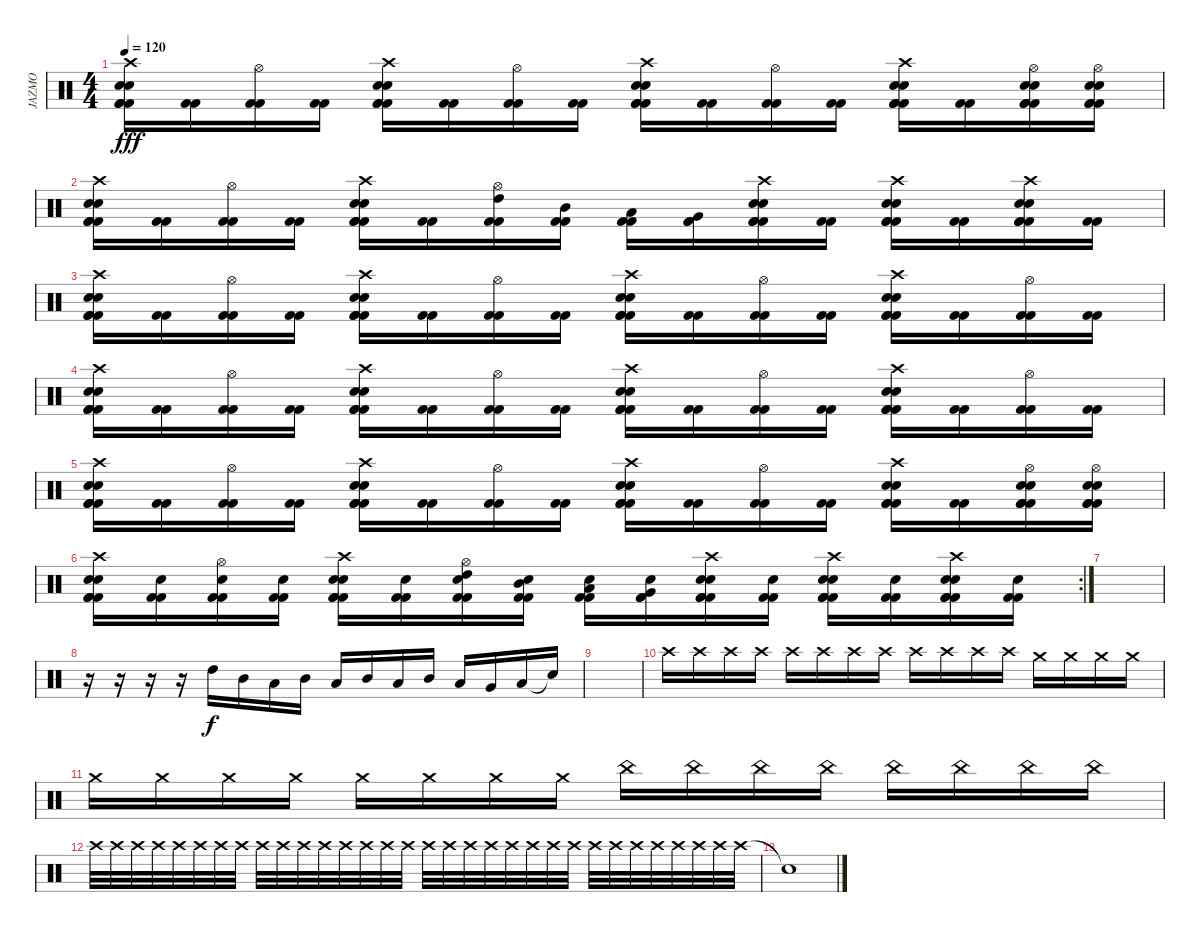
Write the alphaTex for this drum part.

\track ("JAZMO" "JAZMO") {instrument percussion}
\staff {score}
\articulation defaults
\ts (4 4)
\tempo 120
\clef neutral
\ks c
("Electric Snare (hit)" "Kick (hit) 2" "Crash high (hit)" "Electric Snare (hit)" "Kick (hit) 2" "Kick (hit) 2").16{dy fff} ("Kick (hit) 2" "Kick (hit) 2").16 ("Hi-Hat (open)" "Kick (hit) 2" "Kick (hit) 2").16 ("Kick (hit) 2" "Kick (hit) 2").16 ("Electric Snare (hit)" "Kick (hit) 2" "Crash high (hit)" "Electric Snare (hit)" "Kick (hit) 2" "Kick (hit) 2").16 ("Kick (hit) 2" "Kick (hit) 2").16 ("Hi-Hat (open)" "Kick (hit) 2" "Kick (hit) 2").16 ("Kick (hit) 2" "Kick (hit) 2").16 ("Electric Snare (hit)" "Kick (hit) 2" "Crash high (hit)" "Electric Snare (hit)" "Kick (hit) 2" "Kick (hit) 2").16 ("Kick (hit) 2" "Kick (hit) 2").16 ("Hi-Hat (open)" "Kick (hit) 2" "Kick (hit) 2").16 ("Kick (hit) 2" "Kick (hit) 2").16 ("Electric Snare (hit)" "Kick (hit) 2" "Crash high (hit)" "Electric Snare (hit)" "Kick (hit) 2" "Kick (hit) 2").16 ("Kick (hit) 2" "Kick (hit) 2").16 ("Electric Snare (hit)" "Kick (hit) 2" "Hi-Hat (open)" "Electric Snare (hit)" "Kick (hit) 2" "Kick (hit) 2").16 ("Electric Snare (hit)" "Kick (hit) 2" "Hi-Hat (open)" "Electric Snare (hit)" "Kick (hit) 2" "Kick (hit) 2").16 |
("Electric Snare (hit)" "Kick (hit) 2" "Crash high (hit)" "Electric Snare (hit)" "Kick (hit) 2" "Kick (hit) 2").16 ("Kick (hit) 2" "Kick (hit) 2").16 ("Hi-Hat (open)" "Kick (hit) 2" "Kick (hit) 2").16 ("Kick (hit) 2" "Kick (hit) 2").16 ("Electric Snare (hit)" "Kick (hit) 2" "Crash high (hit)" "Electric Snare (hit)" "Kick (hit) 2" "Kick (hit) 2").16 ("Kick (hit) 2" "Kick (hit) 2").16 ("High Tom (hit)" "Hi-Hat (open)" "Kick (hit) 2" "Kick (hit) 2").16 ("Mid Tom (hit)" "Kick (hit) 2" "Kick (hit) 2").16 ("Low Tom (hit)" "Kick (hit) 2" "Kick (hit) 2").16 ("Very Low Tom (hit)" "Kick (hit) 2" "Kick (hit) 2").16 ("Electric Snare (hit)" "Kick (hit) 2" "Crash high (hit)" "Electric Snare (hit)" "Kick (hit) 2" "Kick (hit) 2").16 ("Kick (hit) 2" "Kick (hit) 2").16 ("Electric Snare (hit)" "Kick (hit) 2" "Crash high (hit)" "Electric Snare (hit)" "Kick (hit) 2" "Kick (hit) 2").16 ("Kick (hit) 2" "Kick (hit) 2").16 ("Electric Snare (hit)" "Kick (hit) 2" "Crash high (hit)" "Electric Snare (hit)" "Kick (hit) 2" "Kick (hit) 2").16 ("Kick (hit) 2" "Kick (hit) 2").16 |
("Electric Snare (hit)" "Kick (hit) 2" "Crash high (hit)" "Electric Snare (hit)" "Kick (hit) 2" "Kick (hit) 2").16 ("Kick (hit) 2" "Kick (hit) 2").16 ("Hi-Hat (open)" "Kick (hit) 2" "Kick (hit) 2").16 ("Kick (hit) 2" "Kick (hit) 2").16 ("Electric Snare (hit)" "Kick (hit) 2" "Crash high (hit)" "Electric Snare (hit)" "Kick (hit) 2" "Kick (hit) 2").16 ("Kick (hit) 2" "Kick (hit) 2").16 ("Hi-Hat (open)" "Kick (hit) 2" "Kick (hit) 2").16 ("Kick (hit) 2" "Kick (hit) 2").16 ("Electric Snare (hit)" "Kick (hit) 2" "Crash high (hit)" "Electric Snare (hit)" "Kick (hit) 2" "Kick (hit) 2").16 ("Kick (hit) 2" "Kick (hit) 2").16 ("Hi-Hat (open)" "Kick (hit) 2" "Kick (hit) 2").16 ("Kick (hit) 2" "Kick (hit) 2").16 ("Electric Snare (hit)" "Kick (hit) 2" "Crash high (hit)" "Electric Snare (hit)" "Kick (hit) 2" "Kick (hit) 2").16 ("Kick (hit) 2" "Kick (hit) 2").16 ("Hi-Hat (open)" "Kick (hit) 2" "Kick (hit) 2").16 ("Kick (hit) 2" "Kick (hit) 2").16 |
("Electric Snare (hit)" "Kick (hit) 2" "Crash high (hit)" "Electric Snare (hit)" "Kick (hit) 2" "Kick (hit) 2").16 ("Kick (hit) 2" "Kick (hit) 2").16 ("Hi-Hat (open)" "Kick (hit) 2" "Kick (hit) 2").16 ("Kick (hit) 2" "Kick (hit) 2").16 ("Electric Snare (hit)" "Kick (hit) 2" "Crash high (hit)" "Electric Snare (hit)" "Kick (hit) 2" "Kick (hit) 2").16 ("Kick (hit) 2" "Kick (hit) 2").16 ("Hi-Hat (open)" "Kick (hit) 2" "Kick (hit) 2").16 ("Kick (hit) 2" "Kick (hit) 2").16 ("Electric Snare (hit)" "Kick (hit) 2" "Crash high (hit)" "Electric Snare (hit)" "Kick (hit) 2" "Kick (hit) 2").16 ("Kick (hit) 2" "Kick (hit) 2").16 ("Hi-Hat (open)" "Kick (hit) 2" "Kick (hit) 2").16 ("Kick (hit) 2" "Kick (hit) 2").16 ("Electric Snare (hit)" "Kick (hit) 2" "Crash high (hit)" "Electric Snare (hit)" "Kick (hit) 2" "Kick (hit) 2").16 ("Kick (hit) 2" "Kick (hit) 2").16 ("Hi-Hat (open)" "Kick (hit) 2" "Kick (hit) 2").16 ("Kick (hit) 2" "Kick (hit) 2").16 |
("Electric Snare (hit)" "Kick (hit) 2" "Crash high (hit)" "Electric Snare (hit)" "Kick (hit) 2" "Kick (hit) 2").16 ("Kick (hit) 2" "Kick (hit) 2").16 ("Hi-Hat (open)" "Kick (hit) 2" "Kick (hit) 2").16 ("Kick (hit) 2" "Kick (hit) 2").16 ("Electric Snare (hit)" "Kick (hit) 2" "Crash high (hit)" "Electric Snare (hit)" "Kick (hit) 2" "Kick (hit) 2").16 ("Kick (hit) 2" "Kick (hit) 2").16 ("Hi-Hat (open)" "Kick (hit) 2" "Kick (hit) 2").16 ("Kick (hit) 2" "Kick (hit) 2").16 ("Electric Snare (hit)" "Kick (hit) 2" "Crash high (hit)" "Electric Snare (hit)" "Kick (hit) 2" "Kick (hit) 2").16 ("Kick (hit) 2" "Kick (hit) 2").16 ("Hi-Hat (open)" "Kick (hit) 2" "Kick (hit) 2").16 ("Kick (hit) 2" "Kick (hit) 2").16 ("Electric Snare (hit)" "Kick (hit) 2" "Crash high (hit)" "Electric Snare (hit)" "Kick (hit) 2" "Kick (hit) 2").16 ("Kick (hit) 2" "Kick (hit) 2").16 ("Electric Snare (hit)" "Kick (hit) 2" "Hi-Hat (open)" "Electric Snare (hit)" "Kick (hit) 2" "Kick (hit) 2").16 ("Electric Snare (hit)" "Kick (hit) 2" "Hi-Hat (open)" "Electric Snare (hit)" "Kick (hit) 2" "Kick (hit) 2").16 |
\rc 2
("Electric Snare (hit)" "Kick (hit) 2" "Crash high (hit)" "Electric Snare (hit)" "Kick (hit) 2" "Kick (hit) 2").16 ("Electric Snare (hit)" "Kick (hit) 2" "Kick (hit) 2").16 ("Hi-Hat (open)" "Electric Snare (hit)" "Kick (hit) 2" "Kick (hit) 2").16 ("Electric Snare (hit)" "Kick (hit) 2" "Kick (hit) 2").16 ("Electric Snare (hit)" "Kick (hit) 2" "Crash high (hit)" "Electric Snare (hit)" "Kick (hit) 2" "Kick (hit) 2").16 ("Electric Snare (hit)" "Kick (hit) 2" "Kick (hit) 2").16 ("High Tom (hit)" "Hi-Hat (open)" "Electric Snare (hit)" "Kick (hit) 2" "Kick (hit) 2").16 ("Mid Tom (hit)" "Electric Snare (hit)" "Kick (hit) 2" "Kick (hit) 2").16 ("Low Tom (hit)" "Electric Snare (hit)" "Kick (hit) 2" "Kick (hit) 2").16 ("Very Low Tom (hit)" "Electric Snare (hit)" "Kick (hit) 2" "Kick (hit) 2").16 ("Electric Snare (hit)" "Kick (hit) 2" "Crash high (hit)" "Electric Snare (hit)" "Kick (hit) 2" "Kick (hit) 2").16 ("Electric Snare (hit)" "Kick (hit) 2" "Kick (hit) 2").16 ("Electric Snare (hit)" "Kick (hit) 2" "Crash high (hit)" "Electric Snare (hit)" "Kick (hit) 2" "Kick (hit) 2").16 ("Electric Snare (hit)" "Kick (hit) 2" "Kick (hit) 2").16 ("Electric Snare (hit)" "Kick (hit) 2" "Crash high (hit)" "Electric Snare (hit)" "Kick (hit) 2" "Kick (hit) 2").16 ("Electric Snare (hit)" "Kick (hit) 2" "Kick (hit) 2").16 |
|
r.16 r.16 r.16 r.16 "High Tom (hit)".16{dy f} "Mid Tom (hit)".16 "Low Tom (hit)".16 "Mid Tom (hit)".16 "Low Tom (hit)".16 "Mid Tom (hit)".16 "Low Tom (hit)".16 "Mid Tom (hit)".16 "Low Tom (hit)".16 "Very Low Tom (hit)".16 "Low Floor Tom (hit)".16 "Snare (hit)"{t}.16 |
|
"Crash high (hit)".16 "Crash high (hit)".16 "Crash high (hit)".16 "Crash high (hit)".16 "Crash high (hit)".16 "Crash high (hit)".16 "Crash high (hit)".16 "Crash high (hit)".16 "Crash high (hit)".16 "Crash high (hit)".16 "Crash high (hit)".16 "Crash high (hit)".16 "Crash medium (hit)".16 "Crash medium (hit)".16 "Crash medium (hit)".16 "Crash medium (hit)".16 |
"Crash medium (hit)".16 "Crash medium (hit)".16 "Crash medium (hit)".16 "Crash medium (hit)".16 "Crash medium (hit)".16 "Crash medium (hit)".16 "Crash medium (hit)".16 "Crash medium (hit)".16 "China (hit)".16 "China (hit)".16 "China (hit)".16 "China (hit)".16 "China (hit)".16 "China (hit)".16 "China (hit)".16 "China (hit)".16 |
"Crash high (hit)".32 "Crash high (hit)".32 "Crash high (hit)".32 "Crash high (hit)".32 "Crash high (hit)".32 "Crash high (hit)".32 "Crash high (hit)".32 "Crash high (hit)".32 "Crash high (hit)".32 "Crash high (hit)".32 "Crash high (hit)".32 "Crash high (hit)".32 "Crash high (hit)".32 "Crash high (hit)".32 "Crash high (hit)".32 "Crash high (hit)".32 "Crash high (hit)".32 "Crash high (hit)".32 "Crash high (hit)".32 "Crash high (hit)".32 "Crash high (hit)".32 "Crash high (hit)".32 "Crash high (hit)".32 "Crash high (hit)".32 "Crash high (hit)".32 "Crash high (hit)".32 "Crash high (hit)".32 "Crash high (hit)".32 "Crash high (hit)".32 "Crash high (hit)".32 "Crash high (hit)".32 "Crash high (hit)".32 |
"Snare (hit)"{t}.1
